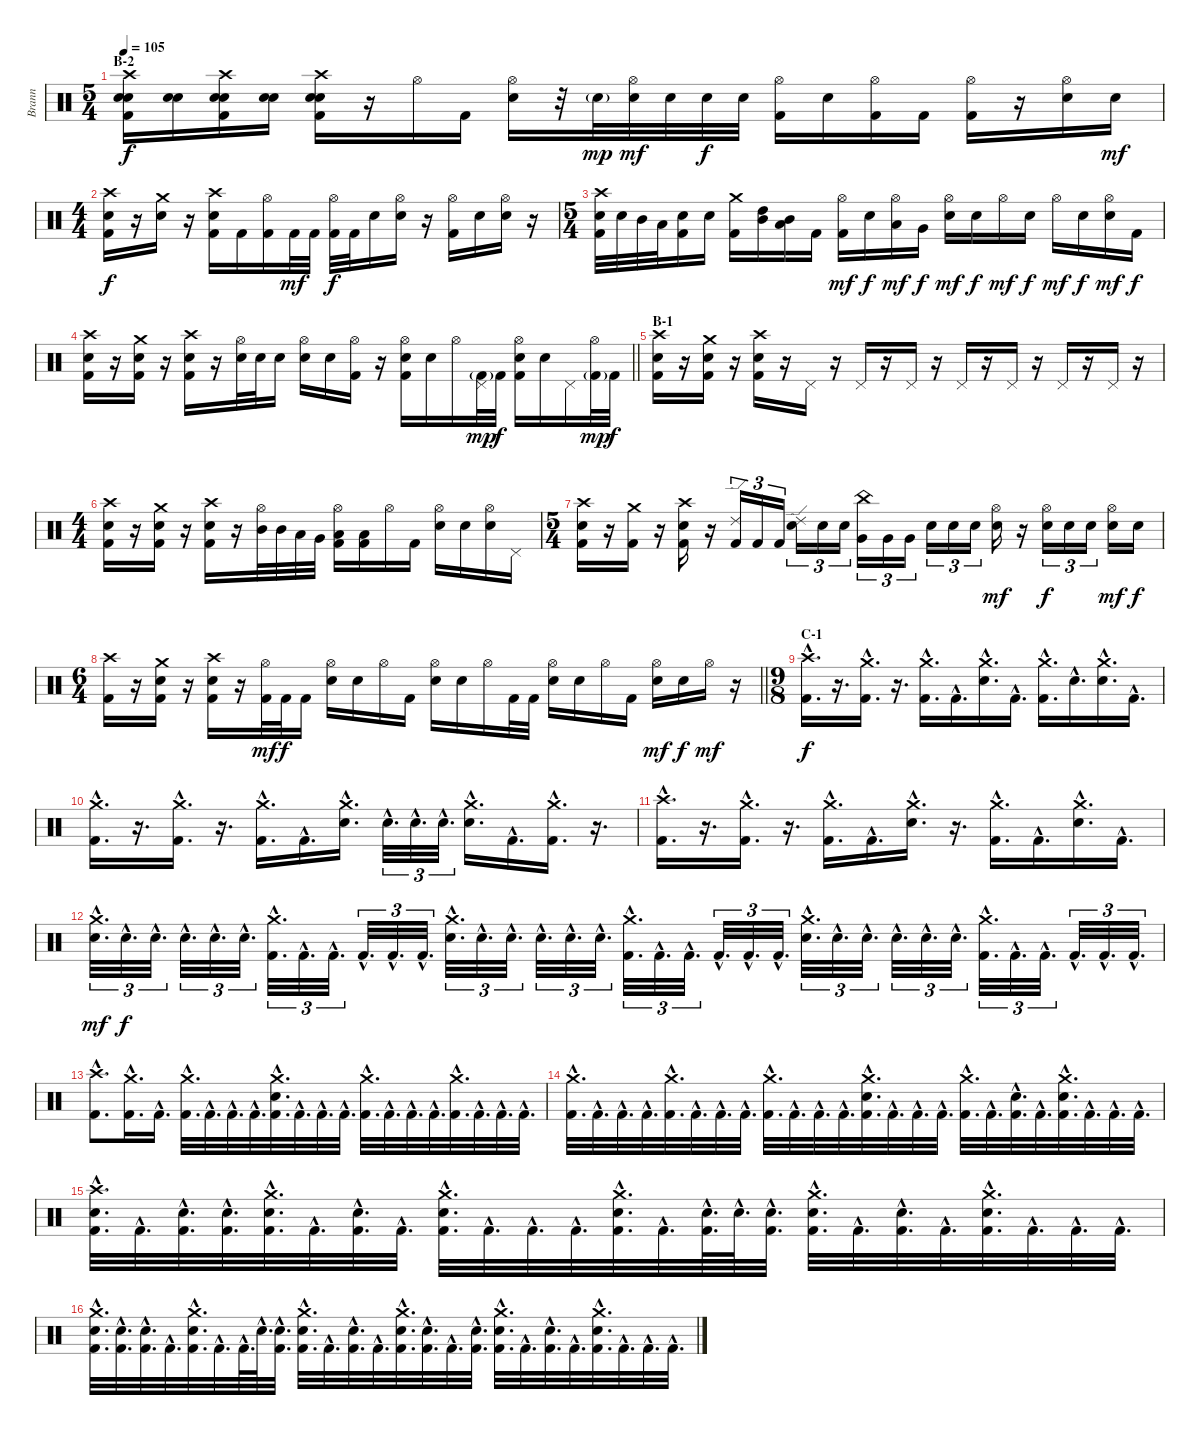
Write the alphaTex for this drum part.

\track ("Brann" "Brann") {instrument percussion}
\staff {score}
\articulation defaults
\ts (5 4)
\section ("" "B-2")
\tempo 105
\clef neutral
\ks c
("Crash high (hit)" "Electric Snare (hit)" "Snare (hit) 2" "Kick (hit) 2").16{dy f} ("Electric Snare (hit)" "Snare (hit) 2").16 ("Crash high (hit)" "Electric Snare (hit)" "Snare (hit) 2" "Kick (hit) 2").16 ("Electric Snare (hit)" "Snare (hit) 2").16 ("Crash high (hit)" "Electric Snare (hit)" "Snare (hit) 2" "Kick (hit) 2").16 r.16 "Hi-Hat (open)".16 "Kick (hit) 2".16 ("Hi-Hat (open)" "Snare (hit) 2").16 r.32 "Snare (hit) 2"{g}.32{dy mp} ("Hi-Hat (open)" "Snare (hit) 2").32{dy mf} "Snare (hit) 2".32 "Snare (hit) 2".32{dy f} "Snare (hit) 2".32 ("Hi-Hat (open)" "Kick (hit) 2").16 "Snare (hit) 2".16 ("Hi-Hat (open)" "Kick (hit) 2").16 "Kick (hit) 2".16 ("Hi-Hat (open)" "Kick (hit) 2").16 r.16 ("Hi-Hat (open)" "Snare (hit) 2").16 "Snare (hit) 2".16{dy mf} |
\ts (4 4)
("Crash high (hit)" "Snare (hit) 2" "Kick (hit) 2").16{dy f} r.16 ("Crash medium (hit)" "Snare (hit) 2").16 r.16 ("Crash high (hit)" "Snare (hit) 2" "Kick (hit) 2").16 "Kick (hit) 2".16 ("Hi-Hat (open)" "Kick (hit) 2").16 "Kick (hit) 2".32{dy mf} "Kick (hit) 2".32 ("Hi-Hat (open)" "Kick (hit) 2").32{dy f} "Kick (hit) 2".32 "Snare (hit) 2".16 ("Hi-Hat (open)" "Snare (hit) 2").16 r.16 ("Hi-Hat (open)" "Kick (hit) 2").16 "Snare (hit) 2".16 ("Hi-Hat (open)" "Snare (hit) 2").16 r.16 |
\ts (5 4)
("Crash high (hit)" "Electric Snare (hit)" "Kick (hit) 2").32 "Electric Snare (hit)".32 "Mid Tom (hit)".32 "Low Tom (hit)".32 ("Snare (hit) 2" "Kick (hit) 2").16 "Snare (hit) 2".16 ("Crash medium (hit)" "Kick (hit) 2").16 ("High Tom (hit)" "Mid Tom (hit)").16 ("Mid Tom (hit)" "Low Tom (hit)").16 "Kick (hit) 2".16 ("Hi-Hat (open)" "Kick (hit) 2").16{dy mf} "Snare (hit) 2".16{dy f} ("Hi-Hat (open)" "Low Tom (hit)").16{dy mf} "Very Low Tom (hit)".16{dy f} ("Hi-Hat (open)" "Snare (hit) 2").16{dy mf} "Snare (hit) 2".16{dy f} "Hi-Hat (open)".16{dy mf} "Snare (hit) 2".16{dy f} "Hi-Hat (open)".16{dy mf} "Snare (hit) 2".16{dy f} ("Hi-Hat (open)" "Snare (hit) 2").16{dy mf} "Kick (hit) 2".16{dy f} |
\barLineRight lightlight
("Crash high (hit)" "Snare (hit) 2" "Kick (hit) 2").16 r.16 ("Crash medium (hit)" "Snare (hit) 2" "Kick (hit) 2").16 r.16 ("Crash high (hit)" "Snare (hit) 2" "Kick (hit) 2").16 r.16 ("Hi-Hat (open)" "Snare (hit) 2").32 "Snare (hit) 2".32 "Snare (hit) 2".16 ("Hi-Hat (open)" "Snare (hit) 2").16 "Electric Snare (hit)".16 ("Hi-Hat (open)" "Kick (hit) 2").16 r.16 ("Hi-Hat (open)" "Electric Snare (hit)" "Kick (hit) 2").16 "Snare (hit) 2".16 "Hi-Hat (open)".16 ("Pedal Hi-Hat (hit)" "Kick (hit) 2"{g}).32{dy mp} "Kick (hit) 2".32{dy f} ("Hi-Hat (open)" "Electric Snare (hit)" "Kick (hit) 2").16 "Snare (hit) 2".16 "Pedal Hi-Hat (hit)".16 ("Hi-Hat (open)" "Kick (hit) 2"{g}).32{dy mp} "Kick (hit) 2".32{dy f} |
\section ("" "B-1")
("Crash high (hit)" "Snare (hit) 2" "Kick (hit) 2").16 r.16 ("Crash medium (hit)" "Snare (hit) 2" "Kick (hit) 2").16 r.16 ("Crash high (hit)" "Snare (hit) 2" "Kick (hit) 2").16 r.16 "Pedal Hi-Hat (hit)".16 r.16 "Pedal Hi-Hat (hit)".16 r.16 "Pedal Hi-Hat (hit)".16 r.16 "Pedal Hi-Hat (hit)".16 r.16 "Pedal Hi-Hat (hit)".16 r.16 "Pedal Hi-Hat (hit)".16 r.16 "Pedal Hi-Hat (hit)".16 r.16 |
\ts (4 4)
("Crash high (hit)" "Snare (hit) 2" "Kick (hit) 2").16 r.16 ("Crash medium (hit)" "Snare (hit) 2" "Kick (hit) 2").16 r.16 ("Crash high (hit)" "Snare (hit) 2" "Kick (hit) 2").16 r.16 ("Hi-Hat (open)" "Mid Tom (hit)").32 "Mid Tom (hit)".32 "Low Tom (hit)".32 "Very Low Tom (hit)".32 ("Hi-Hat (open)" "Low Floor Tom (hit)" "Kick (hit) 2").16 ("Low Floor Tom (hit)" "Kick (hit) 2").16 "Hi-Hat (open)".16 "Kick (hit) 2".16 ("Hi-Hat (open)" "Snare (hit) 2").16 "Snare (hit) 2".16 ("Hi-Hat (open)" "Snare (hit) 2").16 "Pedal Hi-Hat (hit)".16 |
\ts (5 4)
("Crash high (hit)" "Snare (hit) 2" "Kick (hit) 2").16 r.16 ("Crash medium (hit)" "Kick (hit) 2").16 r.16 ("Crash high (hit)" "Snare (hit) 2" "Kick (hit) 2").16 r.16 ("Ride (edge) 2" "Kick (hit) 2").16{tu (3 2)} "Kick (hit) 2".16{tu (3 2)} "Kick (hit) 2".16{tu (3 2)} ("Ride (edge) 2" "Electric Snare (hit)").16{tu (3 2)} "Electric Snare (hit)".16{tu (3 2)} "Electric Snare (hit)".16{tu (3 2)} ("China (hit)" "Very Low Tom (hit)").16{tu (3 2)} "Very Low Tom (hit)".16{tu (3 2)} "Very Low Tom (hit)".16{tu (3 2)} "Snare (hit) 2".16{tu (3 2)} "Snare (hit) 2".16{tu (3 2)} "Snare (hit) 2".16{tu (3 2)} ("Hi-Hat (open)" "Snare (hit) 2").16{dy mf} r.16 ("Hi-Hat (open)" "Snare (hit) 2").16{tu (3 2) dy f} "Snare (hit) 2".16{tu (3 2)} "Snare (hit) 2".16{tu (3 2)} ("Hi-Hat (open)" "Electric Snare (hit)").16{dy mf} "Electric Snare (hit)".16{dy f} |
\ts (6 4)
\barLineRight lightlight
("Crash high (hit)" "Kick (hit) 2").16 r.16 ("Crash medium (hit)" "Snare (hit) 2" "Kick (hit) 2").16 r.16 ("Crash high (hit)" "Electric Snare (hit)" "Kick (hit) 2").16 r.16 ("Hi-Hat (open)" "Kick (hit) 2").32{dy mf} "Kick (hit) 2".32{dy f} "Kick (hit) 2".16 ("Hi-Hat (open)" "Snare (hit) 2").16 "Snare (hit) 2".16 "Hi-Hat (open)".16 "Kick (hit) 2".16 ("Hi-Hat (open)" "Snare (hit) 2").16 "Snare (hit) 2".16 "Hi-Hat (open)".16 "Kick (hit) 2".32 "Kick (hit) 2".32 ("Hi-Hat (open)" "Electric Snare (hit)").16 "Electric Snare (hit)".16 "Hi-Hat (open)".16 "Kick (hit) 2".16 ("Hi-Hat (open)" "Snare (hit) 2").16{dy mf} "Snare (hit) 2".16{dy f} "Hi-Hat (open)".16{dy mf} r.16 |
\ts (9 8)
\section ("" "C-1")
("Crash high (hit)"{hac} "Kick (hit) 2"{hac}).16{d dy f} r.16{d} ("Crash medium (hit)"{hac} "Kick (hit) 2"{hac}).16{d} r.16{d} ("Crash medium (hit)"{hac} "Kick (hit) 2"{hac}).16{d} "Kick (hit) 2"{hac}.16{d} ("Crash medium (hit)"{hac} "Snare (hit) 2"{hac}).16{d} "Kick (hit) 2"{hac}.16{d} ("Crash medium (hit)"{hac} "Kick (hit) 2"{hac}).16{d} "Snare (hit) 2"{hac}.16{d} ("Crash medium (hit)"{hac} "Snare (hit) 2"{hac}).16{d} "Kick (hit) 2"{hac}.16{d} |
("Crash medium (hit)"{hac} "Kick (hit) 2"{hac}).16{d} r.16{d} ("Crash medium (hit)"{hac} "Kick (hit) 2"{hac}).16{d} r.16{d} ("Crash medium (hit)"{hac} "Kick (hit) 2"{hac}).16{d} "Kick (hit) 2"{hac}.16{d} ("Crash medium (hit)"{hac} "Snare (hit) 2"{hac}).16{d} "Snare (hit) 2"{hac}.32{d tu (3 2)} "Snare (hit) 2"{hac}.32{d tu (3 2)} "Snare (hit) 2"{hac}.32{d tu (3 2)} ("Crash medium (hit)"{hac} "Snare (hit) 2"{hac}).16{d} "Kick (hit) 2"{hac}.16{d} ("Crash medium (hit)"{hac} "Kick (hit) 2"{hac}).16{d} r.16{d} |
("Crash high (hit)"{hac} "Kick (hit) 2"{hac}).16{d} r.16{d} ("Crash medium (hit)"{hac} "Kick (hit) 2"{hac}).16{d} r.16{d} ("Crash medium (hit)"{hac} "Kick (hit) 2"{hac}).16{d} "Kick (hit) 2"{hac}.16{d} ("Crash medium (hit)"{hac} "Snare (hit) 2"{hac}).16{d} r.16{d} ("Crash medium (hit)"{hac} "Kick (hit) 2"{hac}).16{d} "Kick (hit) 2"{hac}.16{d} ("Crash medium (hit)"{hac} "Snare (hit) 2"{hac}).16{d} "Kick (hit) 2"{hac}.16{d} |
("Crash medium (hit)"{hac} "Electric Snare (hit)"{hac}).32{d tu (3 2) dy mf} "Electric Snare (hit)"{hac}.32{d tu (3 2) dy f} "Electric Snare (hit)"{hac}.32{d tu (3 2)} "Electric Snare (hit)"{hac}.32{d tu (3 2)} "Electric Snare (hit)"{hac}.32{d tu (3 2)} "Electric Snare (hit)"{hac}.32{d tu (3 2)} ("Crash medium (hit)"{hac} "Kick (hit) 2"{hac}).32{d tu (3 2)} "Kick (hit) 2"{hac}.32{d tu (3 2)} "Kick (hit) 2"{hac}.32{d tu (3 2)} "Kick (hit) 2"{hac}.32{d tu (3 2)} "Kick (hit) 2"{hac}.32{d tu (3 2)} "Kick (hit) 2"{hac}.32{d tu (3 2)} ("Crash medium (hit)"{hac} "Electric Snare (hit)"{hac}).32{d tu (3 2)} "Electric Snare (hit)"{hac}.32{d tu (3 2)} "Electric Snare (hit)"{hac}.32{d tu (3 2)} "Electric Snare (hit)"{hac}.32{d tu (3 2)} "Electric Snare (hit)"{hac}.32{d tu (3 2)} "Electric Snare (hit)"{hac}.32{d tu (3 2)} ("Crash medium (hit)"{hac} "Kick (hit) 2"{hac}).32{d tu (3 2)} "Kick (hit) 2"{hac}.32{d tu (3 2)} "Kick (hit) 2"{hac}.32{d tu (3 2)} "Kick (hit) 2"{hac}.32{d tu (3 2)} "Kick (hit) 2"{hac}.32{d tu (3 2)} "Kick (hit) 2"{hac}.32{d tu (3 2)} ("Crash medium (hit)"{hac} "Electric Snare (hit)"{hac}).32{d tu (3 2)} "Electric Snare (hit)"{hac}.32{d tu (3 2)} "Electric Snare (hit)"{hac}.32{d tu (3 2)} "Electric Snare (hit)"{hac}.32{d tu (3 2)} "Electric Snare (hit)"{hac}.32{d tu (3 2)} "Electric Snare (hit)"{hac}.32{d tu (3 2)} ("Crash medium (hit)"{hac} "Kick (hit) 2"{hac}).32{d tu (3 2)} "Kick (hit) 2"{hac}.32{d tu (3 2)} "Kick (hit) 2"{hac}.32{d tu (3 2)} "Kick (hit) 2"{hac}.32{d tu (3 2)} "Kick (hit) 2"{hac}.32{d tu (3 2)} "Kick (hit) 2"{hac}.32{d tu (3 2)} |
("Crash high (hit)"{hac} "Kick (hit) 2"{hac}).8{d} ("Crash medium (hit)"{hac} "Kick (hit) 2"{hac}).16{d} "Kick (hit) 2"{hac}.16{d} ("Crash medium (hit)"{hac} "Kick (hit) 2"{hac}).32{d} "Kick (hit) 2"{hac}.32{d} "Kick (hit) 2"{hac}.32{d} "Kick (hit) 2"{hac}.32{d} ("Crash medium (hit)"{hac} "Snare (hit) 2"{hac} "Kick (hit) 2"{hac}).32{d} "Kick (hit) 2"{hac}.32{d} "Kick (hit) 2"{hac}.32{d} "Kick (hit) 2"{hac}.32{d} ("Crash medium (hit)"{hac} "Kick (hit) 2"{hac}).32{d} "Kick (hit) 2"{hac}.32{d} "Kick (hit) 2"{hac}.32{d} "Kick (hit) 2"{hac}.32{d} ("Crash medium (hit)"{hac} "Kick (hit) 2"{hac}).32{d} "Kick (hit) 2"{hac}.32{d} "Kick (hit) 2"{hac}.32{d} "Kick (hit) 2"{hac}.32{d} |
("Crash medium (hit)"{hac} "Kick (hit) 2"{hac}).32{d} "Kick (hit) 2"{hac}.32{d} "Kick (hit) 2"{hac}.32{d} "Kick (hit) 2"{hac}.32{d} ("Crash medium (hit)"{hac} "Kick (hit) 2"{hac}).32{d} "Kick (hit) 2"{hac}.32{d} "Kick (hit) 2"{hac}.32{d} "Kick (hit) 2"{hac}.32{d} ("Crash medium (hit)"{hac} "Kick (hit) 2"{hac}).32{d} "Kick (hit) 2"{hac}.32{d} "Kick (hit) 2"{hac}.32{d} "Kick (hit) 2"{hac}.32{d} ("Crash medium (hit)"{hac} "Snare (hit) 2"{hac} "Kick (hit) 2"{hac}).32{d} "Kick (hit) 2"{hac}.32{d} "Kick (hit) 2"{hac}.32{d} "Kick (hit) 2"{hac}.32{d} ("Crash medium (hit)"{hac} "Kick (hit) 2"{hac}).32{d} "Kick (hit) 2"{hac}.32{d} ("Electric Snare (hit)"{hac} "Kick (hit) 2"{hac}).32{d} "Kick (hit) 2"{hac}.32{d} ("Crash medium (hit)"{hac} "Electric Snare (hit)"{hac} "Kick (hit) 2"{hac}).32{d} "Kick (hit) 2"{hac}.32{d} "Kick (hit) 2"{hac}.32{d} "Kick (hit) 2"{hac}.32{d} |
("Crash high (hit)"{hac} "Snare (hit) 2"{hac} "Kick (hit) 2"{hac}).32{d} "Kick (hit) 2"{hac}.32{d} ("Snare (hit) 2"{hac} "Kick (hit) 2"{hac}).32{d} ("Snare (hit) 2"{hac} "Kick (hit) 2"{hac}).32{d} ("Crash medium (hit)"{hac} "Snare (hit) 2"{hac} "Kick (hit) 2"{hac}).32{d} "Kick (hit) 2"{hac}.32{d} ("Snare (hit) 2"{hac} "Kick (hit) 2"{hac}).32{d} "Kick (hit) 2"{hac}.32{d} ("Crash medium (hit)"{hac} "Snare (hit) 2"{hac} "Kick (hit) 2"{hac}).32{d} "Kick (hit) 2"{hac}.32{d} "Kick (hit) 2"{hac}.32{d} "Kick (hit) 2"{hac}.32{d} ("Crash medium (hit)"{hac} "Snare (hit) 2"{hac} "Kick (hit) 2"{hac}).32{d} "Kick (hit) 2"{hac}.32{d} ("Snare (hit) 2"{hac} "Kick (hit) 2"{hac}).64{d} "Electric Snare (hit)"{hac}.64{d} ("Snare (hit) 2"{hac} "Kick (hit) 2"{hac}).32{d} ("Crash medium (hit)"{hac} "Snare (hit) 2"{hac} "Kick (hit) 2"{hac}).32{d} "Kick (hit) 2"{hac}.32{d} ("Snare (hit) 2"{hac} "Kick (hit) 2"{hac}).32{d} "Kick (hit) 2"{hac}.32{d} ("Crash medium (hit)"{hac} "Snare (hit) 2"{hac} "Kick (hit) 2"{hac}).32{d} "Kick (hit) 2"{hac}.32{d} "Kick (hit) 2"{hac}.32{d} "Kick (hit) 2"{hac}.32{d} |
("Crash medium (hit)"{hac} "Snare (hit) 2"{hac} "Kick (hit) 2"{hac}).32{d} ("Snare (hit) 2"{hac} "Kick (hit) 2"{hac}).32{d} ("Snare (hit) 2"{hac} "Kick (hit) 2"{hac}).32{d} "Kick (hit) 2"{hac}.32{d} ("Crash medium (hit)"{hac} "Snare (hit) 2"{hac} "Kick (hit) 2"{hac}).32{d} "Kick (hit) 2"{hac}.32{d} "Kick (hit) 2"{hac}.64{d} "Snare (hit) 2"{hac}.64{d} ("Snare (hit) 2"{hac} "Kick (hit) 2"{hac}).32{d} ("Crash medium (hit)"{hac} "Snare (hit) 2"{hac} "Kick (hit) 2"{hac}).32{d} "Kick (hit) 2"{hac}.32{d} ("Electric Snare (hit)"{hac} "Kick (hit) 2"{hac}).32{d} "Kick (hit) 2"{hac}.32{d} ("Crash medium (hit)"{hac} "Snare (hit) 2"{hac} "Kick (hit) 2"{hac}).32{d} ("Snare (hit) 2"{hac} "Kick (hit) 2"{hac}).32{d} "Kick (hit) 2"{hac}.32{d} ("Snare (hit) 2"{hac} "Kick (hit) 2"{hac}).32{d} ("Crash medium (hit)"{hac} "Snare (hit) 2"{hac} "Kick (hit) 2"{hac}).32{d} "Kick (hit) 2"{hac}.32{d} ("Snare (hit) 2"{hac} "Kick (hit) 2"{hac}).32{d} "Kick (hit) 2"{hac}.32{d} ("Crash medium (hit)"{hac} "Snare (hit) 2"{hac} "Kick (hit) 2"{hac}).32{d} "Kick (hit) 2"{hac}.32{d} "Kick (hit) 2"{hac}.32{d} "Kick (hit) 2"{hac}.32{d}
